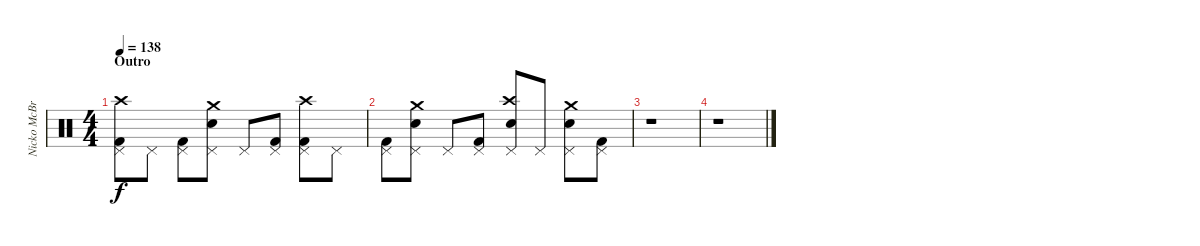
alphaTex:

\track ("Nicko McBrain" "Nicko McBr") {instrument percussion}
\staff {score}
\articulation defaults
\ts (4 4)
\section ("" "Outro")
\tempo 138
\clef neutral
\ks c
("Kick (hit) 2" "Pedal Hi-Hat (hit)" "Crash high (hit)").8{dy f} "Pedal Hi-Hat (hit)".8 ("Kick (hit) 2" "Pedal Hi-Hat (hit)").8 ("Snare (hit) 2" "Pedal Hi-Hat (hit)" "Crash medium (hit)").8 "Pedal Hi-Hat (hit)".8 ("Kick (hit) 2" "Pedal Hi-Hat (hit)").8 ("Kick (hit) 2" "Pedal Hi-Hat (hit)" "Crash high (hit)").8 "Pedal Hi-Hat (hit)".8 |
("Kick (hit) 2" "Pedal Hi-Hat (hit)").8 ("Snare (hit) 2" "Pedal Hi-Hat (hit)" "Crash medium (hit)").8 "Pedal Hi-Hat (hit)".8 ("Kick (hit) 2" "Pedal Hi-Hat (hit)").8 ("Snare (hit) 2" "Pedal Hi-Hat (hit)" "Crash high (hit)").8 "Pedal Hi-Hat (hit)".8 ("Snare (hit) 2" "Pedal Hi-Hat (hit)" "Crash medium (hit)").8 ("Kick (hit) 2" "Pedal Hi-Hat (hit)").8 |
r.1 |
r.1
